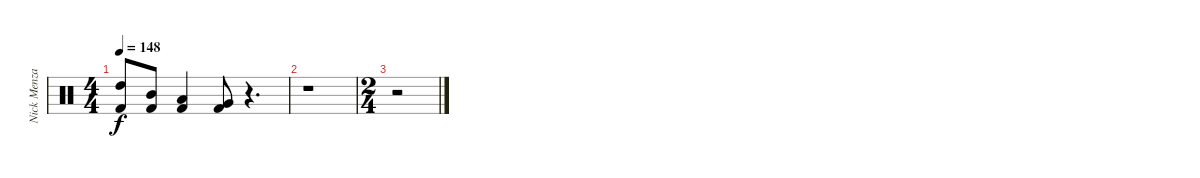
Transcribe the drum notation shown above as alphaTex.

\track ("Nick Menza" "Nick Menza") {instrument percussion}
\staff {score}
\articulation defaults
\ts (4 4)
\tempo 148
\clef neutral
\ks c
("High Tom (hit)" "Kick (hit) 2").8{dy f} ("Mid Tom (hit)" "Kick (hit) 2").8 ("Low Tom (hit)" "Kick (hit) 2").4 ("Very Low Tom (hit)" "Kick (hit) 2").8 r.4{d} |
r.1 |
\ts (2 4)
r.2
